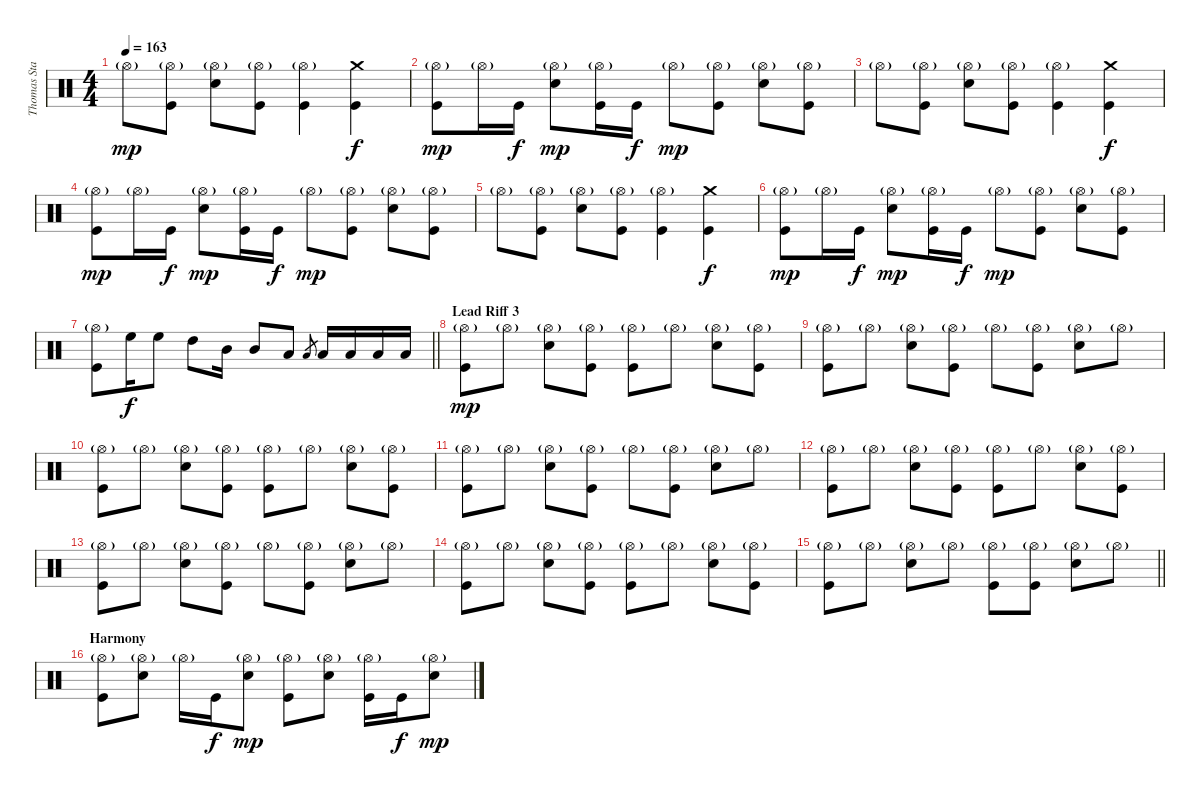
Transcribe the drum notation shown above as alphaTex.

\track ("Thomas Stauch" "Thomas Sta") {instrument percussion}
\staff {score}
\articulation defaults
\ts (4 4)
\tempo 163
\clef neutral
\ks c "Hi-Hat (open)"{g}.8{dy mp}
("Hi-Hat (open)"{g} "Kick (hit)").8 ("Hi-Hat (open)"{g} "Electric Snare (hit)").8 ("Hi-Hat (open)"{g} "Kick (hit)").8 ("Hi-Hat (open)"{g} "Kick (hit)").4 ("Crash medium (hit)" "Kick (hit)").4{dy f} |
("Hi-Hat (open)"{g} "Kick (hit)").8{dy mp} "Hi-Hat (open)"{g}.16 "Kick (hit)".16{dy f} ("Hi-Hat (open)"{g} "Electric Snare (hit)").8{dy mp} ("Hi-Hat (open)"{g} "Kick (hit)").16 "Kick (hit)".16{dy f} "Hi-Hat (open)"{g}.8{dy mp} ("Hi-Hat (open)"{g} "Kick (hit)").8 ("Hi-Hat (open)"{g} "Electric Snare (hit)").8 ("Hi-Hat (open)"{g} "Kick (hit)").8 |
"Hi-Hat (open)"{g}.8 ("Hi-Hat (open)"{g} "Kick (hit)").8 ("Hi-Hat (open)"{g} "Electric Snare (hit)").8 ("Hi-Hat (open)"{g} "Kick (hit)").8 ("Hi-Hat (open)"{g} "Kick (hit)").4 ("Crash medium (hit)" "Kick (hit)").4{dy f} |
("Hi-Hat (open)"{g} "Kick (hit)").8{dy mp} "Hi-Hat (open)"{g}.16 "Kick (hit)".16{dy f} ("Hi-Hat (open)"{g} "Electric Snare (hit)").8{dy mp} ("Hi-Hat (open)"{g} "Kick (hit)").16 "Kick (hit)".16{dy f} "Hi-Hat (open)"{g}.8{dy mp} ("Hi-Hat (open)"{g} "Kick (hit)").8 ("Hi-Hat (open)"{g} "Electric Snare (hit)").8 ("Hi-Hat (open)"{g} "Kick (hit)").8 |
"Hi-Hat (open)"{g}.8 ("Hi-Hat (open)"{g} "Kick (hit)").8 ("Hi-Hat (open)"{g} "Electric Snare (hit)").8 ("Hi-Hat (open)"{g} "Kick (hit)").8 ("Hi-Hat (open)"{g} "Kick (hit)").4 ("Crash medium (hit)" "Kick (hit)").4{dy f} |
("Hi-Hat (open)"{g} "Kick (hit)").8{dy mp} "Hi-Hat (open)"{g}.16 "Kick (hit)".16{dy f} ("Hi-Hat (open)"{g} "Electric Snare (hit)").8{dy mp} ("Hi-Hat (open)"{g} "Kick (hit)").16 "Kick (hit)".16{dy f} "Hi-Hat (open)"{g}.8{dy mp} ("Hi-Hat (open)"{g} "Kick (hit)").8 ("Hi-Hat (open)"{g} "Electric Snare (hit)").8 ("Hi-Hat (open)"{g} "Kick (hit)").8 |
\barLineRight lightlight
("Hi-Hat (open)"{g} "Kick (hit)").8 "High Floor Tom (hit)".16{dy f} "High Floor Tom (hit)".8 "High Tom (hit)".8 "Mid Tom (hit)".16 "Mid Tom (hit)".8 "Low Tom (hit)".8 "Low Tom (hit)".8{gr} "Low Tom (hit)".16 "Low Tom (hit)".16 "Low Tom (hit)".16 "Low Tom (hit)".16 |
\section ("" "Lead Riff 3")
("Hi-Hat (open)"{g} "Kick (hit)").8{dy mp} "Hi-Hat (open)"{g}.8 ("Hi-Hat (open)"{g} "Electric Snare (hit)").8 ("Hi-Hat (open)"{g} "Kick (hit)").8 ("Hi-Hat (open)"{g} "Kick (hit)").8 "Hi-Hat (open)"{g}.8 ("Hi-Hat (open)"{g} "Electric Snare (hit)").8 ("Hi-Hat (open)"{g} "Kick (hit)").8 |
("Hi-Hat (open)"{g} "Kick (hit)").8 "Hi-Hat (open)"{g}.8 ("Hi-Hat (open)"{g} "Electric Snare (hit)").8 ("Hi-Hat (open)"{g} "Kick (hit)").8 "Hi-Hat (open)"{g}.8 ("Hi-Hat (open)"{g} "Kick (hit)").8 ("Hi-Hat (open)"{g} "Electric Snare (hit)").8 "Hi-Hat (open)"{g}.8 |
("Hi-Hat (open)"{g} "Kick (hit)").8 "Hi-Hat (open)"{g}.8 ("Hi-Hat (open)"{g} "Electric Snare (hit)").8 ("Hi-Hat (open)"{g} "Kick (hit)").8 ("Hi-Hat (open)"{g} "Kick (hit)").8 "Hi-Hat (open)"{g}.8 ("Hi-Hat (open)"{g} "Electric Snare (hit)").8 ("Hi-Hat (open)"{g} "Kick (hit)").8 |
("Hi-Hat (open)"{g} "Kick (hit)").8 "Hi-Hat (open)"{g}.8 ("Hi-Hat (open)"{g} "Electric Snare (hit)").8 ("Hi-Hat (open)"{g} "Kick (hit)").8 "Hi-Hat (open)"{g}.8 ("Hi-Hat (open)"{g} "Kick (hit)").8 ("Hi-Hat (open)"{g} "Electric Snare (hit)").8 "Hi-Hat (open)"{g}.8 |
("Hi-Hat (open)"{g} "Kick (hit)").8 "Hi-Hat (open)"{g}.8 ("Hi-Hat (open)"{g} "Electric Snare (hit)").8 ("Hi-Hat (open)"{g} "Kick (hit)").8 ("Hi-Hat (open)"{g} "Kick (hit)").8 "Hi-Hat (open)"{g}.8 ("Hi-Hat (open)"{g} "Electric Snare (hit)").8 ("Hi-Hat (open)"{g} "Kick (hit)").8 |
("Hi-Hat (open)"{g} "Kick (hit)").8 "Hi-Hat (open)"{g}.8 ("Hi-Hat (open)"{g} "Electric Snare (hit)").8 ("Hi-Hat (open)"{g} "Kick (hit)").8 "Hi-Hat (open)"{g}.8 ("Hi-Hat (open)"{g} "Kick (hit)").8 ("Hi-Hat (open)"{g} "Electric Snare (hit)").8 "Hi-Hat (open)"{g}.8 |
("Hi-Hat (open)"{g} "Kick (hit)").8 "Hi-Hat (open)"{g}.8 ("Hi-Hat (open)"{g} "Electric Snare (hit)").8 ("Hi-Hat (open)"{g} "Kick (hit)").8 ("Hi-Hat (open)"{g} "Kick (hit)").8 "Hi-Hat (open)"{g}.8 ("Hi-Hat (open)"{g} "Electric Snare (hit)").8 ("Hi-Hat (open)"{g} "Kick (hit)").8 |
\barLineRight lightlight
("Hi-Hat (open)"{g} "Kick (hit)").8 "Hi-Hat (open)"{g}.8 ("Hi-Hat (open)"{g} "Electric Snare (hit)").8 "Hi-Hat (open)"{g}.8 ("Hi-Hat (open)"{g} "Kick (hit)").8 ("Hi-Hat (open)"{g} "Kick (hit)").8 ("Hi-Hat (open)"{g} "Electric Snare (hit)").8 "Hi-Hat (open)"{g}.8 |
\section ("" "Harmony")
("Hi-Hat (open)"{g} "Kick (hit)").8 ("Hi-Hat (open)"{g} "Electric Snare (hit)").8 "Hi-Hat (open)"{g}.16 "Kick (hit)".16{dy f} ("Hi-Hat (open)"{g} "Electric Snare (hit)").8{dy mp} ("Hi-Hat (open)"{g} "Kick (hit)").8 ("Hi-Hat (open)"{g} "Electric Snare (hit)").8 ("Hi-Hat (open)"{g} "Kick (hit)").16 "Kick (hit)".16{dy f} ("Hi-Hat (open)"{g} "Electric Snare (hit)").8{dy mp}
